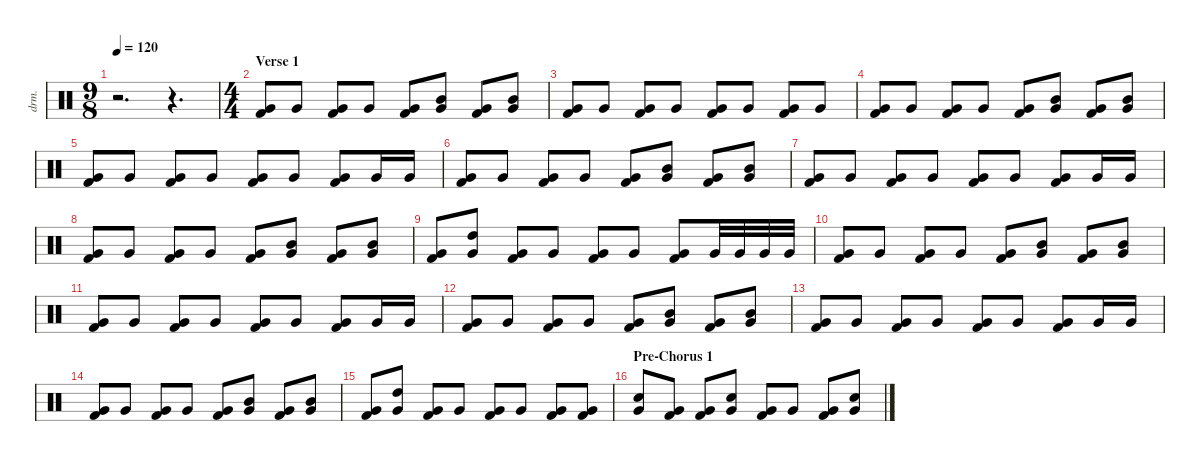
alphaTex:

\defaultSystemsLayout 4
\hideDynamics
\bracketExtendMode nobrackets
\otherSystemsTrackNameOrientation horizontal
\track ("Jimmy Chamberlin" "drm.") {instrument percussion}
\staff {score}
\articulation defaults
\ts (9 8)
\beaming (8 2 2 2 3)
\tempo 120
\clef neutral
\ks c
r.2{d dy mf beam Down} r.4{d beam Down} |
\ts (4 4)
\beaming (8 2 2 2 2)
\section ("" "Verse 1")
("Very Low Tom (hit)" "Kick (hit) 2").8{beam Up} "Very Low Tom (hit)".8{beam Up} ("Very Low Tom (hit)" "Kick (hit) 2").8{beam Up} "Very Low Tom (hit)".8{beam Up} ("Very Low Tom (hit)" "Kick (hit) 2").8{beam Up} ("Very Low Tom (hit)" "Mid Tom (hit)").8{beam Up} ("Very Low Tom (hit)" "Kick (hit) 2").8{beam Up} ("Very Low Tom (hit)" "Mid Tom (hit)").8{beam Up} |
("Very Low Tom (hit)" "Kick (hit) 2").8{beam Up} "Very Low Tom (hit)".8{beam Up} ("Very Low Tom (hit)" "Kick (hit) 2").8{beam Up} "Very Low Tom (hit)".8{beam Up} ("Very Low Tom (hit)" "Kick (hit) 2").8{beam Up} "Very Low Tom (hit)".8{beam Up} ("Very Low Tom (hit)" "Kick (hit) 2").8{beam Up} "Very Low Tom (hit)".8{beam Up} |
("Very Low Tom (hit)" "Kick (hit) 2").8{beam Up} "Very Low Tom (hit)".8{beam Up} ("Very Low Tom (hit)" "Kick (hit) 2").8{beam Up} "Very Low Tom (hit)".8{beam Up} ("Very Low Tom (hit)" "Kick (hit) 2").8{beam Up} ("Very Low Tom (hit)" "Mid Tom (hit)").8{beam Up} ("Very Low Tom (hit)" "Kick (hit) 2").8{beam Up} ("Very Low Tom (hit)" "Mid Tom (hit)").8{beam Up} |
("Very Low Tom (hit)" "Kick (hit) 2").8{beam Up} "Very Low Tom (hit)".8{beam Up} ("Very Low Tom (hit)" "Kick (hit) 2").8{beam Up} "Very Low Tom (hit)".8{beam Up} ("Very Low Tom (hit)" "Kick (hit) 2").8{beam Up} "Very Low Tom (hit)".8{beam Up} ("Very Low Tom (hit)" "Kick (hit) 2").8{beam Up} "Very Low Tom (hit)".16{beam Up} "Very Low Tom (hit)".16{beam Up} |
("Very Low Tom (hit)" "Kick (hit) 2").8{beam Up} "Very Low Tom (hit)".8{beam Up} ("Very Low Tom (hit)" "Kick (hit) 2").8{beam Up} "Very Low Tom (hit)".8{beam Up} ("Very Low Tom (hit)" "Kick (hit) 2").8{beam Up} ("Very Low Tom (hit)" "Mid Tom (hit)").8{beam Up} ("Very Low Tom (hit)" "Kick (hit) 2").8{beam Up} ("Very Low Tom (hit)" "Mid Tom (hit)").8{beam Up} |
("Very Low Tom (hit)" "Kick (hit) 2").8{beam Up} "Very Low Tom (hit)".8{beam Up} ("Very Low Tom (hit)" "Kick (hit) 2").8{beam Up} "Very Low Tom (hit)".8{beam Up} ("Very Low Tom (hit)" "Kick (hit) 2").8{beam Up} "Very Low Tom (hit)".8{beam Up} ("Very Low Tom (hit)" "Kick (hit) 2").8{beam Up} "Very Low Tom (hit)".16{beam Up} "Very Low Tom (hit)".16{beam Up} |
("Very Low Tom (hit)" "Kick (hit) 2").8{beam Up} "Very Low Tom (hit)".8{beam Up} ("Very Low Tom (hit)" "Kick (hit) 2").8{beam Up} "Very Low Tom (hit)".8{beam Up} ("Very Low Tom (hit)" "Kick (hit) 2").8{beam Up} ("Very Low Tom (hit)" "Mid Tom (hit)").8{beam Up} ("Very Low Tom (hit)" "Kick (hit) 2").8{beam Up} ("Very Low Tom (hit)" "Mid Tom (hit)").8{beam Up} |
("Very Low Tom (hit)" "Kick (hit) 2").8{beam Up} ("Very Low Tom (hit)" "High Tom (hit)").8{beam Up} ("Very Low Tom (hit)" "Kick (hit) 2").8{beam Up} "Very Low Tom (hit)".8{beam Up} ("Kick (hit) 2" "Very Low Tom (hit)").8{beam Up} "Very Low Tom (hit)".8{beam Up} ("Very Low Tom (hit)" "Kick (hit) 2").8{beam Up} "Very Low Tom (hit)".32{beam Up} "Very Low Tom (hit)".32{beam Up} "Very Low Tom (hit)".32{beam Up} "Very Low Tom (hit)".32{beam Up} |
("Very Low Tom (hit)" "Kick (hit) 2").8{beam Up} "Very Low Tom (hit)".8{beam Up} ("Very Low Tom (hit)" "Kick (hit) 2").8{beam Up} "Very Low Tom (hit)".8{beam Up} ("Very Low Tom (hit)" "Kick (hit) 2").8{beam Up} ("Very Low Tom (hit)" "Mid Tom (hit)").8{beam Up} ("Very Low Tom (hit)" "Kick (hit) 2").8{beam Up} ("Very Low Tom (hit)" "Mid Tom (hit)").8{beam Up} |
("Very Low Tom (hit)" "Kick (hit) 2").8{beam Up} "Very Low Tom (hit)".8{beam Up} ("Very Low Tom (hit)" "Kick (hit) 2").8{beam Up} "Very Low Tom (hit)".8{beam Up} ("Very Low Tom (hit)" "Kick (hit) 2").8{beam Up} "Very Low Tom (hit)".8{beam Up} ("Very Low Tom (hit)" "Kick (hit) 2").8{beam Up} "Very Low Tom (hit)".16{beam Up} "Very Low Tom (hit)".16{beam Up} |
("Very Low Tom (hit)" "Kick (hit) 2").8{beam Up} "Very Low Tom (hit)".8{beam Up} ("Very Low Tom (hit)" "Kick (hit) 2").8{beam Up} "Very Low Tom (hit)".8{beam Up} ("Very Low Tom (hit)" "Kick (hit) 2").8{beam Up} ("Very Low Tom (hit)" "Mid Tom (hit)").8{beam Up} ("Very Low Tom (hit)" "Kick (hit) 2").8{beam Up} ("Very Low Tom (hit)" "Mid Tom (hit)").8{beam Up} |
("Very Low Tom (hit)" "Kick (hit) 2").8{beam Up} "Very Low Tom (hit)".8{beam Up} ("Very Low Tom (hit)" "Kick (hit) 2").8{beam Up} "Very Low Tom (hit)".8{beam Up} ("Very Low Tom (hit)" "Kick (hit) 2").8{beam Up} "Very Low Tom (hit)".8{beam Up} ("Very Low Tom (hit)" "Kick (hit) 2").8{beam Up} "Very Low Tom (hit)".16{beam Up} "Very Low Tom (hit)".16{beam Up} |
("Very Low Tom (hit)" "Kick (hit) 2").8{beam Up} "Very Low Tom (hit)".8{beam Up} ("Very Low Tom (hit)" "Kick (hit) 2").8{beam Up} "Very Low Tom (hit)".8{beam Up} ("Very Low Tom (hit)" "Kick (hit) 2").8{beam Up} ("Very Low Tom (hit)" "Mid Tom (hit)").8{beam Up} ("Very Low Tom (hit)" "Kick (hit) 2").8{beam Up} ("Very Low Tom (hit)" "Mid Tom (hit)").8{beam Up} |
("Very Low Tom (hit)" "Kick (hit) 2").8{beam Up} ("Very Low Tom (hit)" "High Tom (hit)").8{beam Up} ("Very Low Tom (hit)" "Kick (hit) 2").8{beam Up} "Very Low Tom (hit)".8{beam Up} ("Kick (hit) 2" "Very Low Tom (hit)").8{beam Up} "Very Low Tom (hit)".8{beam Up} ("Very Low Tom (hit)" "Kick (hit) 2").8{beam Up} ("Very Low Tom (hit)" "Kick (hit) 2").8{beam Up} |
\section ("" "Pre-Chorus 1")
("Snare (hit) 2" "Very Low Tom (hit)").8{beam Up} ("Kick (hit) 2" "Very Low Tom (hit)").8{beam Up} ("Kick (hit) 2" "Very Low Tom (hit)").8{beam Up} ("Snare (hit) 2" "Very Low Tom (hit)").8{beam Up} ("Kick (hit) 2" "Very Low Tom (hit)").8{beam Up} "Very Low Tom (hit)".8{beam Up} ("Very Low Tom (hit)" "Kick (hit) 2").8{beam Up} ("Snare (hit) 2" "Very Low Tom (hit)").8{beam Up}
